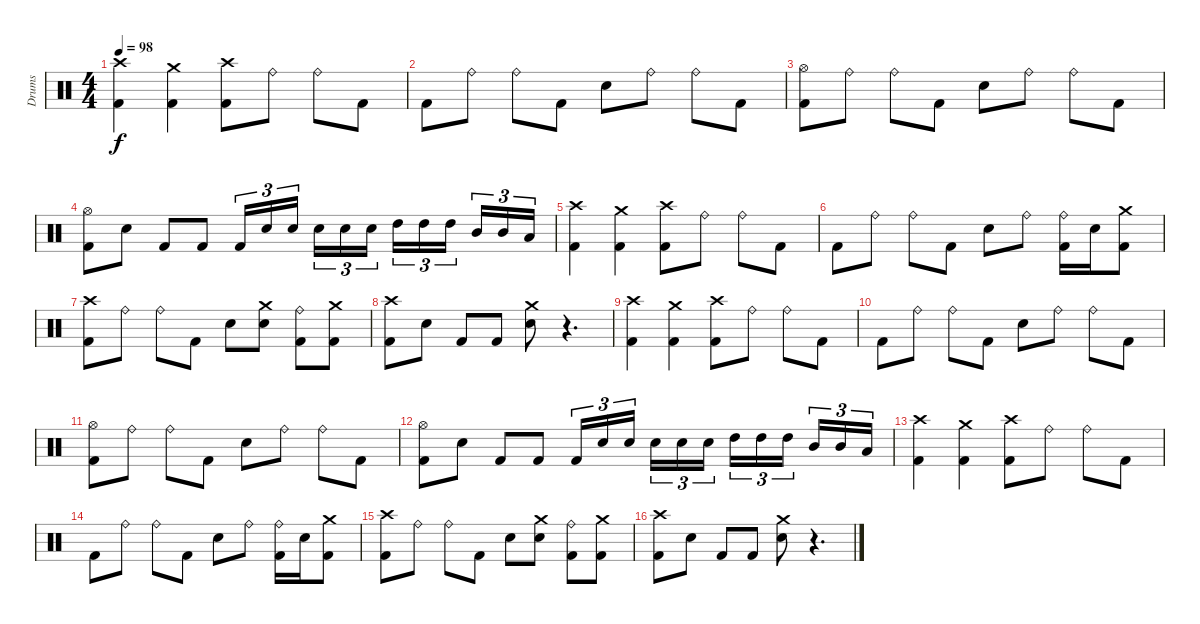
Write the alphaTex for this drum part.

\track ("Drums" "Drums") {instrument percussion}
\staff {score}
\articulation defaults
\ts (4 4)
\tempo 98
\clef neutral
\ks c
("Kick (hit) 2" "Crash high (hit)").4{dy f} ("Kick (hit) 2" "Crash medium (hit)").4 ("Kick (hit) 2" "Crash high (hit)").8 "Ride (bell)".8 "Ride (bell)".8 "Kick (hit) 2".8 |
"Kick (hit) 2".8 "Ride (bell)".8 "Ride (bell)".8 "Kick (hit) 2".8 "Snare (hit) 2".8 "Ride (bell)".8 "Ride (bell)".8 "Kick (hit) 2".8 |
("Kick (hit) 2" "Hi-Hat (open)").8 "Ride (bell)".8 "Ride (bell)".8 "Kick (hit) 2".8 "Snare (hit) 2".8 "Ride (bell)".8 "Ride (bell)".8 "Kick (hit) 2".8 |
("Kick (hit) 2" "Hi-Hat (open)").8 "Snare (hit) 2".8 "Kick (hit) 2".8 "Kick (hit) 2".8 "Kick (hit) 2".16{tu (3 2)} "Snare (hit) 2".16{tu (3 2)} "Snare (hit) 2".16{tu (3 2)} "Snare (hit) 2".16{tu (3 2)} "Snare (hit) 2".16{tu (3 2)} "Snare (hit) 2".16{tu (3 2)} "High Tom (hit)".16{tu (3 2)} "High Tom (hit)".16{tu (3 2)} "High Tom (hit)".16{tu (3 2)} "Mid Tom (hit)".16{tu (3 2)} "Mid Tom (hit)".16{tu (3 2)} "Low Tom (hit)".16{tu (3 2)} |
("Kick (hit) 2" "Crash high (hit)").4 ("Kick (hit) 2" "Crash medium (hit)").4 ("Kick (hit) 2" "Crash high (hit)").8 "Ride (bell)".8 "Ride (bell)".8 "Kick (hit) 2".8 |
"Kick (hit) 2".8 "Ride (bell)".8 "Ride (bell)".8 "Kick (hit) 2".8 "Snare (hit) 2".8 "Ride (bell)".8 ("Kick (hit) 2" "Ride (bell)").16 "Snare (hit) 2".16 ("Kick (hit) 2" "Crash medium (hit)").8 |
("Kick (hit) 2" "Crash high (hit)").8 "Ride (bell)".8 "Ride (bell)".8 "Kick (hit) 2".8 "Snare (hit) 2".8 ("Snare (hit) 2" "Crash medium (hit)").8 ("Kick (hit) 2" "Ride (bell)").8 ("Kick (hit) 2" "Crash medium (hit)").8 |
("Kick (hit) 2" "Crash high (hit)").8 "Snare (hit) 2".8 "Kick (hit) 2".8 "Kick (hit) 2".8 ("Snare (hit) 2" "Crash medium (hit)").8 r.4{d} |
("Kick (hit) 2" "Crash high (hit)").4 ("Kick (hit) 2" "Crash medium (hit)").4 ("Kick (hit) 2" "Crash high (hit)").8 "Ride (bell)".8 "Ride (bell)".8 "Kick (hit) 2".8 |
"Kick (hit) 2".8 "Ride (bell)".8 "Ride (bell)".8 "Kick (hit) 2".8 "Snare (hit) 2".8 "Ride (bell)".8 "Ride (bell)".8 "Kick (hit) 2".8 |
("Kick (hit) 2" "Hi-Hat (open)").8 "Ride (bell)".8 "Ride (bell)".8 "Kick (hit) 2".8 "Snare (hit) 2".8 "Ride (bell)".8 "Ride (bell)".8 "Kick (hit) 2".8 |
("Kick (hit) 2" "Hi-Hat (open)").8 "Snare (hit) 2".8 "Kick (hit) 2".8 "Kick (hit) 2".8 "Kick (hit) 2".16{tu (3 2)} "Snare (hit) 2".16{tu (3 2)} "Snare (hit) 2".16{tu (3 2)} "Snare (hit) 2".16{tu (3 2)} "Snare (hit) 2".16{tu (3 2)} "Snare (hit) 2".16{tu (3 2)} "High Tom (hit)".16{tu (3 2)} "High Tom (hit)".16{tu (3 2)} "High Tom (hit)".16{tu (3 2)} "Mid Tom (hit)".16{tu (3 2)} "Mid Tom (hit)".16{tu (3 2)} "Low Tom (hit)".16{tu (3 2)} |
("Kick (hit) 2" "Crash high (hit)").4 ("Kick (hit) 2" "Crash medium (hit)").4 ("Kick (hit) 2" "Crash high (hit)").8 "Ride (bell)".8 "Ride (bell)".8 "Kick (hit) 2".8 |
"Kick (hit) 2".8 "Ride (bell)".8 "Ride (bell)".8 "Kick (hit) 2".8 "Snare (hit) 2".8 "Ride (bell)".8 ("Kick (hit) 2" "Ride (bell)").16 "Snare (hit) 2".16 ("Kick (hit) 2" "Crash medium (hit)").8 |
("Kick (hit) 2" "Crash high (hit)").8 "Ride (bell)".8 "Ride (bell)".8 "Kick (hit) 2".8 "Snare (hit) 2".8 ("Snare (hit) 2" "Crash medium (hit)").8 ("Kick (hit) 2" "Ride (bell)").8 ("Kick (hit) 2" "Crash medium (hit)").8 |
("Kick (hit) 2" "Crash high (hit)").8 "Snare (hit) 2".8 "Kick (hit) 2".8 "Kick (hit) 2".8 ("Snare (hit) 2" "Crash medium (hit)").8 r.4{d}
